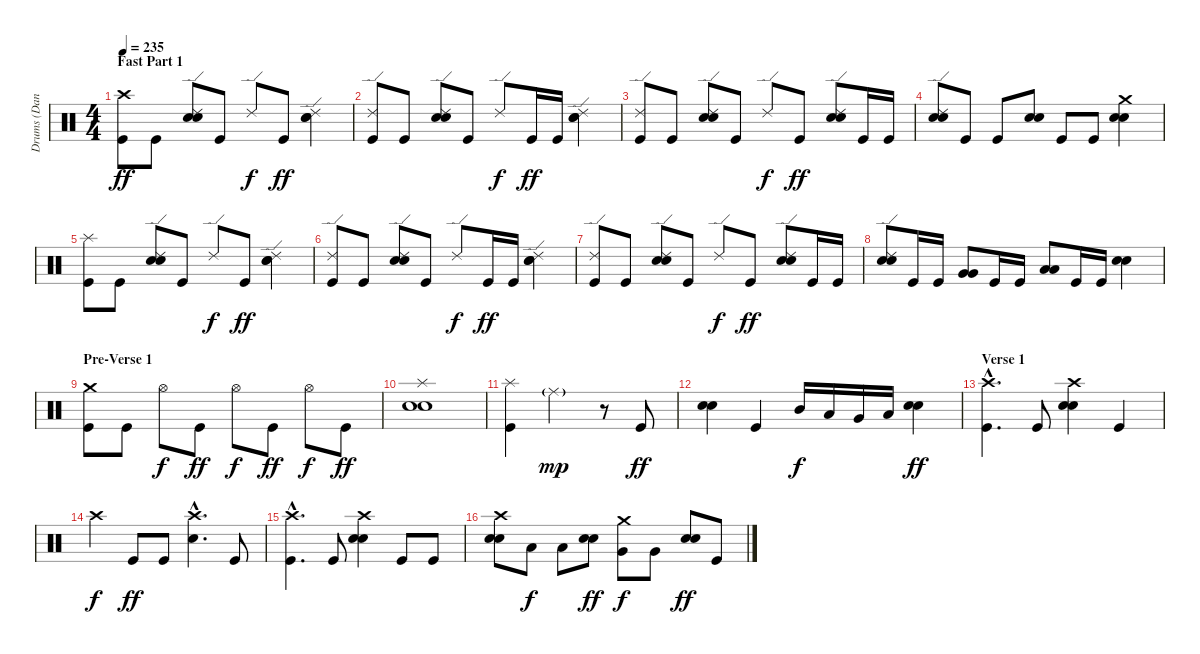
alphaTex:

\track ("Drums (Dan)" "Drums (Dan") {instrument percussion}
\staff {score}
\articulation defaults
\ts (4 4)
\section ("" "Fast Part 1")
\tempo 235
\clef neutral
\ks c
("Kick (hit)" "Crash high (hit)").8{dy ff} "Kick (hit)".8 ("Electric Snare (hit)" "Electric Snare (hit)" "Ride (edge) 2").8 "Kick (hit)".8 "Ride (edge) 2".8{dy f} "Kick (hit)".8{dy ff} ("Electric Snare (hit)" "Electric Snare (hit)" "Ride (edge) 2").4 |
("Kick (hit)" "Ride (edge) 2").8 "Kick (hit)".8 ("Electric Snare (hit)" "Electric Snare (hit)" "Ride (edge) 2").8 "Kick (hit)".8 "Ride (edge) 2".8{dy f} "Kick (hit)".16{dy ff} "Kick (hit)".16 ("Electric Snare (hit)" "Electric Snare (hit)" "Ride (edge) 2").4 |
("Kick (hit)" "Ride (edge) 2").8 "Kick (hit)".8 ("Electric Snare (hit)" "Electric Snare (hit)" "Ride (edge) 2").8 "Kick (hit)".8 "Ride (edge) 2".8{dy f} "Kick (hit)".8{dy ff} ("Electric Snare (hit)" "Electric Snare (hit)" "Ride (edge) 2").8 "Kick (hit)".16 "Kick (hit)".16 |
("Electric Snare (hit)" "Electric Snare (hit)" "Ride (edge) 2").8 "Kick (hit)".8 "Kick (hit)".8 ("Electric Snare (hit)" "Electric Snare (hit)").8 "Kick (hit)".8 "Kick (hit)".8 ("Electric Snare (hit)" "Electric Snare (hit)" "Crash medium (hit)").4 |
("Kick (hit)" "Splash (hit)").8 "Kick (hit)".8 ("Electric Snare (hit)" "Electric Snare (hit)" "Ride (edge) 2").8 "Kick (hit)".8 "Ride (edge) 2".8{dy f} "Kick (hit)".8{dy ff} ("Electric Snare (hit)" "Electric Snare (hit)" "Ride (edge) 2").4 |
("Kick (hit)" "Ride (edge) 2").8 "Kick (hit)".8 ("Electric Snare (hit)" "Electric Snare (hit)" "Ride (edge) 2").8 "Kick (hit)".8 "Ride (edge) 2".8{dy f} "Kick (hit)".16{dy ff} "Kick (hit)".16 ("Electric Snare (hit)" "Electric Snare (hit)" "Ride (edge) 2").4 |
("Kick (hit)" "Ride (edge) 2").8 "Kick (hit)".8 ("Electric Snare (hit)" "Electric Snare (hit)" "Ride (edge) 2").8 "Kick (hit)".8 "Ride (edge) 2".8{dy f} "Kick (hit)".8{dy ff} ("Electric Snare (hit)" "Electric Snare (hit)" "Ride (edge) 2").8 "Kick (hit)".16 "Kick (hit)".16 |
("Electric Snare (hit)" "Electric Snare (hit)" "Ride (edge) 2").8 "Kick (hit)".16 "Kick (hit)".16 ("Very Low Tom (hit)" "Very Low Tom (hit)").8 "Kick (hit)".16 "Kick (hit)".16 ("Low Floor Tom (hit)" "Low Floor Tom (hit)").8 "Kick (hit)".16 "Kick (hit)".16 ("Electric Snare (hit)" "Electric Snare (hit)").4 |
\section ("" "Pre-Verse 1")
("Kick (hit)" "Crash medium (hit)").8 "Kick (hit)".8 "Hi-Hat (open)".8{dy f} "Kick (hit)".8{dy ff} "Hi-Hat (open)".8{dy f} "Kick (hit)".8{dy ff} "Hi-Hat (open)".8{dy f} "Kick (hit)".8{dy ff} |
("Electric Snare (hit)" "Electric Snare (hit)" "Splash (hit)").1 |
("Kick (hit)" "Splash (hit)").4 "Ride (middle)"{g}.2{dy mp} r.8 "Kick (hit)".8{dy ff} |
("Electric Snare (hit)" "Electric Snare (hit)").4 "Kick (hit)".4 "Mid Tom (hit)".16{dy f} "Low Tom (hit)".16 "Very Low Tom (hit)".16 "Low Floor Tom (hit)".16 ("Electric Snare (hit)" "Electric Snare (hit)").4{dy ff} |
\section ("" "Verse 1")
("Kick (hit)"{hac} "Crash high (hit)"{hac}).4{d} "Kick (hit)".8 ("Electric Snare (hit)" "Electric Snare (hit)" "Crash high (hit)").4 "Kick (hit)".4 |
"Crash high (hit)".4{dy f} "Kick (hit)".8{dy ff} "Kick (hit)".8 ("Electric Snare (hit)"{hac} "Crash high (hit)"{hac}).4{d} "Kick (hit)".8 |
("Kick (hit)"{hac} "Crash high (hit)"{hac}).4{d} "Kick (hit)".8 ("Electric Snare (hit)" "Electric Snare (hit)" "Crash high (hit)").4 "Kick (hit)".8 "Kick (hit)".8 |
("Electric Snare (hit)" "Electric Snare (hit)" "Crash high (hit)").8 "Low Tom (hit)".8{dy f} "Low Tom (hit)".8 ("Electric Snare (hit)" "Electric Snare (hit)").8{dy ff} ("Very Low Tom (hit)" "Crash medium (hit)").8{dy f} "Very Low Tom (hit)".8 ("Electric Snare (hit)" "Electric Snare (hit)").8{dy ff} "Kick (hit)".8
